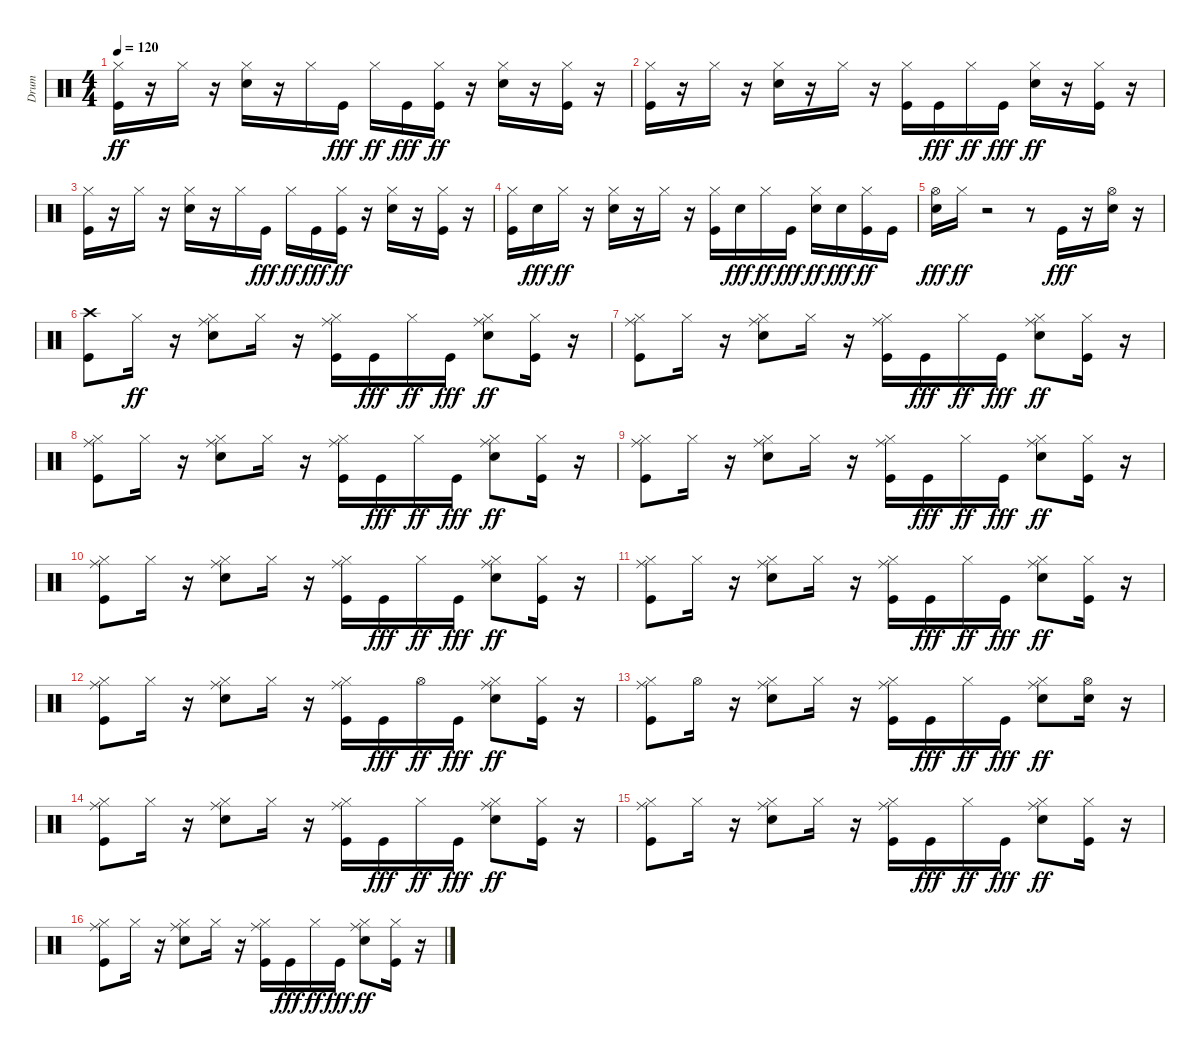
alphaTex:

\track ("Drum" "Drum") {instrument percussion}
\staff {score}
\articulation defaults
\ts (4 4)
\tempo 120
\clef neutral
\ks c
("Kick (hit)" "Hi-Hat (closed)").16{dy ff} r.16 "Hi-Hat (closed)".16 r.16 ("Electric Snare (hit)" "Hi-Hat (closed)").16 r.16 "Hi-Hat (closed)".16 "Kick (hit)".16{dy fff} "Hi-Hat (closed)".16{dy ff} "Kick (hit)".16{dy fff} ("Kick (hit)" "Hi-Hat (closed)").16{dy ff} r.16 ("Electric Snare (hit)" "Hi-Hat (closed)").16 r.16 ("Kick (hit)" "Hi-Hat (closed)").16 r.16 |
("Kick (hit)" "Hi-Hat (closed)").16 r.16 "Hi-Hat (closed)".16 r.16 ("Electric Snare (hit)" "Hi-Hat (closed)").16 r.16 "Hi-Hat (closed)".16 r.16 ("Kick (hit)" "Hi-Hat (closed)").16 "Kick (hit)".16{dy fff} "Hi-Hat (closed)".16{dy ff} "Kick (hit)".16{dy fff} ("Electric Snare (hit)" "Hi-Hat (closed)").16{dy ff} r.16 ("Kick (hit)" "Hi-Hat (closed)").16 r.16 |
("Kick (hit)" "Hi-Hat (closed)").16 r.16 "Hi-Hat (closed)".16 r.16 ("Electric Snare (hit)" "Hi-Hat (closed)").16 r.16 "Hi-Hat (closed)".16 "Kick (hit)".16{dy fff} "Hi-Hat (closed)".16{dy ff} "Kick (hit)".16{dy fff} ("Kick (hit)" "Hi-Hat (closed)").16{dy ff} r.16 ("Electric Snare (hit)" "Hi-Hat (closed)").16 r.16 ("Kick (hit)" "Hi-Hat (closed)").16 r.16 |
("Kick (hit)" "Hi-Hat (closed)").16 "Electric Snare (hit)".16{dy fff} "Hi-Hat (closed)".16{dy ff} r.16 ("Electric Snare (hit)" "Hi-Hat (closed)").16 r.16 "Hi-Hat (closed)".16 r.16 ("Kick (hit)" "Hi-Hat (closed)").16 "Electric Snare (hit)".16{dy fff} "Hi-Hat (closed)".16{dy ff} "Kick (hit)".16{dy fff} ("Electric Snare (hit)" "Hi-Hat (closed)").16{dy ff} "Electric Snare (hit)".16{dy fff} ("Kick (hit)" "Hi-Hat (closed)").16{dy ff} "Kick (hit)".16 |
("Hi-Hat (open)" "Electric Snare (hit)").16{dy fff} "Hi-Hat (closed)".16{dy ff} r.2 r.8 "Kick (hit)".16{dy fff} r.16 ("Hi-Hat (open)" "Electric Snare (hit)").16 r.16 |
("Crash high (hit)" "Kick (hit)").8 "Hi-Hat (closed)".16{dy ff} r.16 ("Electric Snare (hit)" "Hi-Hat (closed)" "Ride (middle)").8 "Hi-Hat (closed)".16 r.16 ("Kick (hit)" "Hi-Hat (closed)" "Ride (middle)").16 "Kick (hit)".16{dy fff} "Hi-Hat (closed)".16{dy ff} "Kick (hit)".16{dy fff} ("Electric Snare (hit)" "Hi-Hat (closed)" "Ride (middle)").8{dy ff} ("Kick (hit)" "Hi-Hat (closed)").16 r.16 |
("Kick (hit)" "Hi-Hat (closed)" "Ride (middle)").8 "Hi-Hat (closed)".16 r.16 ("Electric Snare (hit)" "Hi-Hat (closed)" "Ride (middle)").8 "Hi-Hat (closed)".16 r.16 ("Kick (hit)" "Hi-Hat (closed)" "Ride (middle)").16 "Kick (hit)".16{dy fff} "Hi-Hat (closed)".16{dy ff} "Kick (hit)".16{dy fff} ("Electric Snare (hit)" "Hi-Hat (closed)" "Ride (middle)").8{dy ff} ("Kick (hit)" "Hi-Hat (closed)").16 r.16 |
("Kick (hit)" "Hi-Hat (closed)" "Ride (middle)").8 "Hi-Hat (closed)".16 r.16 ("Electric Snare (hit)" "Hi-Hat (closed)" "Ride (middle)").8 "Hi-Hat (closed)".16 r.16 ("Kick (hit)" "Hi-Hat (closed)" "Ride (middle)").16 "Kick (hit)".16{dy fff} "Hi-Hat (closed)".16{dy ff} "Kick (hit)".16{dy fff} ("Electric Snare (hit)" "Hi-Hat (closed)" "Ride (middle)").8{dy ff} ("Kick (hit)" "Hi-Hat (closed)").16 r.16 |
("Kick (hit)" "Hi-Hat (closed)" "Ride (middle)").8 "Hi-Hat (closed)".16 r.16 ("Electric Snare (hit)" "Hi-Hat (closed)" "Ride (middle)").8 "Hi-Hat (closed)".16 r.16 ("Kick (hit)" "Hi-Hat (closed)" "Ride (middle)").16 "Kick (hit)".16{dy fff} "Hi-Hat (closed)".16{dy ff} "Kick (hit)".16{dy fff} ("Electric Snare (hit)" "Hi-Hat (closed)" "Ride (middle)").8{dy ff} ("Kick (hit)" "Hi-Hat (closed)").16 r.16 |
("Kick (hit)" "Hi-Hat (closed)" "Ride (middle)").8 "Hi-Hat (closed)".16 r.16 ("Electric Snare (hit)" "Hi-Hat (closed)" "Ride (middle)").8 "Hi-Hat (closed)".16 r.16 ("Kick (hit)" "Hi-Hat (closed)" "Ride (middle)").16 "Kick (hit)".16{dy fff} "Hi-Hat (closed)".16{dy ff} "Kick (hit)".16{dy fff} ("Electric Snare (hit)" "Hi-Hat (closed)" "Ride (middle)").8{dy ff} ("Kick (hit)" "Hi-Hat (closed)").16 r.16 |
("Kick (hit)" "Hi-Hat (closed)" "Ride (middle)").8 "Hi-Hat (closed)".16 r.16 ("Electric Snare (hit)" "Hi-Hat (closed)" "Ride (middle)").8 "Hi-Hat (closed)".16 r.16 ("Kick (hit)" "Hi-Hat (closed)" "Ride (middle)").16 "Kick (hit)".16{dy fff} "Hi-Hat (closed)".16{dy ff} "Kick (hit)".16{dy fff} ("Electric Snare (hit)" "Hi-Hat (closed)" "Ride (middle)").8{dy ff} ("Kick (hit)" "Hi-Hat (closed)").16 r.16 |
("Kick (hit)" "Hi-Hat (closed)" "Ride (middle)").8 "Hi-Hat (closed)".16 r.16 ("Electric Snare (hit)" "Hi-Hat (closed)" "Ride (middle)").8 "Hi-Hat (closed)".16 r.16 ("Kick (hit)" "Hi-Hat (closed)" "Ride (middle)").16 "Kick (hit)".16{dy fff} "Hi-Hat (open)".16{dy ff} "Kick (hit)".16{dy fff} ("Electric Snare (hit)" "Hi-Hat (closed)" "Ride (middle)").8{dy ff} ("Kick (hit)" "Hi-Hat (closed)").16 r.16 |
("Kick (hit)" "Hi-Hat (closed)" "Ride (middle)").8 "Hi-Hat (open)".16 r.16 ("Electric Snare (hit)" "Hi-Hat (closed)" "Ride (middle)").8 "Hi-Hat (closed)".16 r.16 ("Kick (hit)" "Hi-Hat (closed)" "Ride (middle)").16 "Kick (hit)".16{dy fff} "Hi-Hat (closed)".16{dy ff} "Kick (hit)".16{dy fff} ("Electric Snare (hit)" "Hi-Hat (closed)" "Ride (middle)").8{dy ff} ("Electric Snare (hit)" "Hi-Hat (open)").16 r.16 |
("Kick (hit)" "Hi-Hat (closed)" "Ride (middle)").8 "Hi-Hat (closed)".16 r.16 ("Electric Snare (hit)" "Hi-Hat (closed)" "Ride (middle)").8 "Hi-Hat (closed)".16 r.16 ("Kick (hit)" "Hi-Hat (closed)" "Ride (middle)").16 "Kick (hit)".16{dy fff} "Hi-Hat (closed)".16{dy ff} "Kick (hit)".16{dy fff} ("Electric Snare (hit)" "Hi-Hat (closed)" "Ride (middle)").8{dy ff} ("Kick (hit)" "Hi-Hat (closed)").16 r.16 |
("Kick (hit)" "Hi-Hat (closed)" "Ride (middle)").8 "Hi-Hat (closed)".16 r.16 ("Electric Snare (hit)" "Hi-Hat (closed)" "Ride (middle)").8 "Hi-Hat (closed)".16 r.16 ("Kick (hit)" "Hi-Hat (closed)" "Ride (middle)").16 "Kick (hit)".16{dy fff} "Hi-Hat (closed)".16{dy ff} "Kick (hit)".16{dy fff} ("Electric Snare (hit)" "Hi-Hat (closed)" "Ride (middle)").8{dy ff} ("Kick (hit)" "Hi-Hat (closed)").16 r.16 |
("Kick (hit)" "Hi-Hat (closed)" "Ride (middle)").8 "Hi-Hat (closed)".16 r.16 ("Electric Snare (hit)" "Hi-Hat (closed)" "Ride (middle)").8 "Hi-Hat (closed)".16 r.16 ("Kick (hit)" "Hi-Hat (closed)" "Ride (middle)").16 "Kick (hit)".16{dy fff} "Hi-Hat (closed)".16{dy ff} "Kick (hit)".16{dy fff} ("Electric Snare (hit)" "Hi-Hat (closed)" "Ride (middle)").8{dy ff} ("Kick (hit)" "Hi-Hat (closed)").16 r.16
